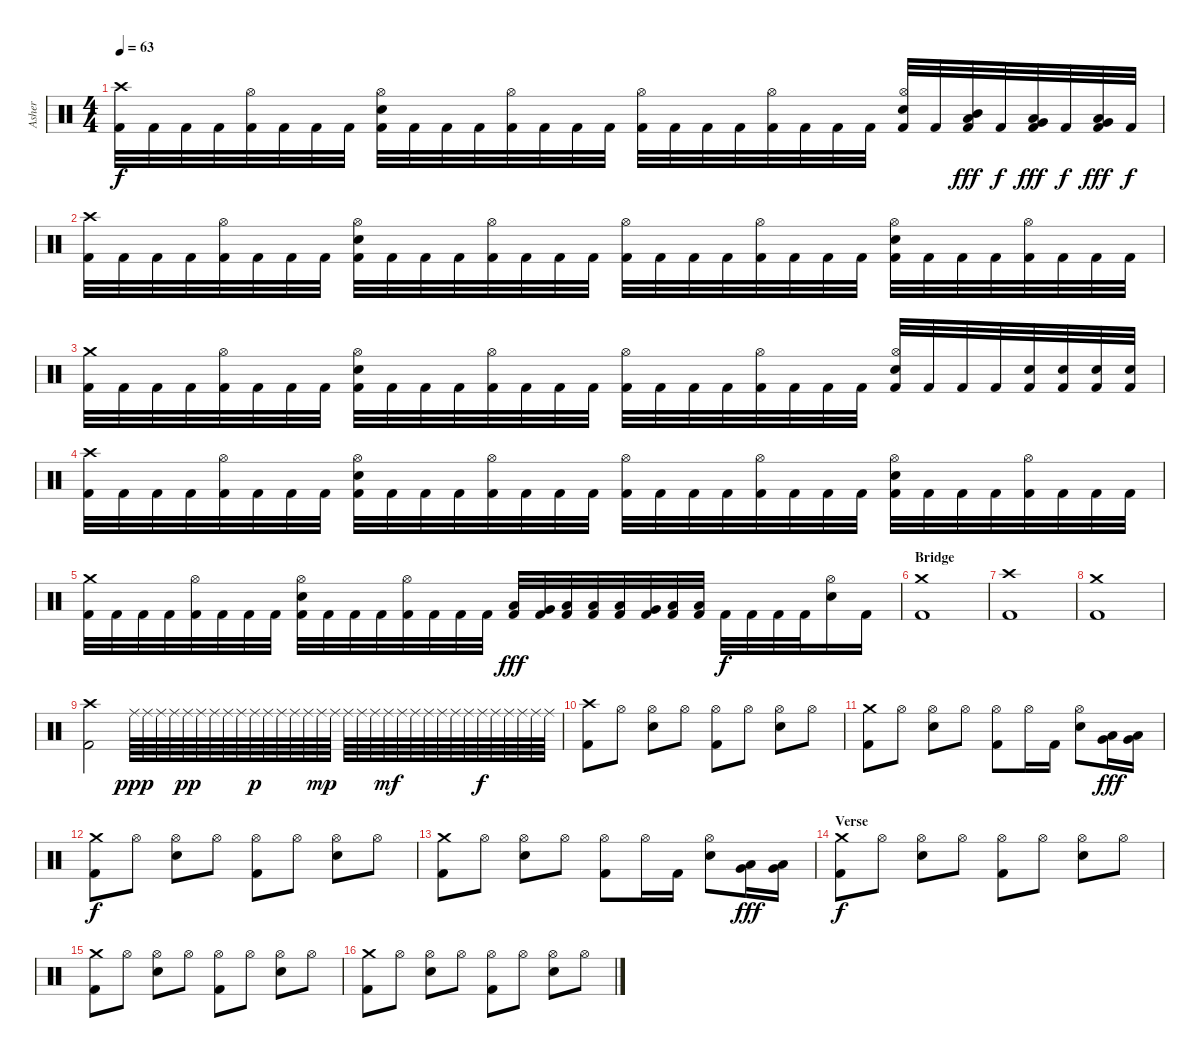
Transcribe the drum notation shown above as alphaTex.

\track ("Asher" "Asher") {instrument percussion}
\staff {score}
\articulation defaults
\ts (4 4)
\tempo 63
\clef neutral
\ks c
("Crash high (hit)" "Kick (hit) 2").32{dy f} "Kick (hit) 2".32 "Kick (hit) 2".32 "Kick (hit) 2".32 ("Hi-Hat (open)" "Kick (hit) 2").32 "Kick (hit) 2".32 "Kick (hit) 2".32 "Kick (hit) 2".32 ("Hi-Hat (open)" "Electric Snare (hit)" "Kick (hit) 2").32 "Kick (hit) 2".32 "Kick (hit) 2".32 "Kick (hit) 2".32 ("Hi-Hat (open)" "Kick (hit) 2").32 "Kick (hit) 2".32 "Kick (hit) 2".32 "Kick (hit) 2".32 ("Hi-Hat (open)" "Kick (hit) 2").32 "Kick (hit) 2".32 "Kick (hit) 2".32 "Kick (hit) 2".32 ("Hi-Hat (open)" "Kick (hit) 2").32 "Kick (hit) 2".32 "Kick (hit) 2".32 "Kick (hit) 2".32 ("Hi-Hat (open)" "Electric Snare (hit)" "Kick (hit) 2").32 "Kick (hit) 2".32 ("Mid Tom (hit)" "Low Tom (hit)" "Kick (hit) 2").32{dy fff} "Kick (hit) 2".32{dy f} ("Low Tom (hit)" "Very Low Tom (hit)" "Kick (hit) 2").32{dy fff} "Kick (hit) 2".32{dy f} ("Very Low Tom (hit)" "Low Floor Tom (hit)" "Kick (hit) 2").32{dy fff} "Kick (hit) 2".32{dy f} |
("Crash high (hit)" "Kick (hit) 2").32 "Kick (hit) 2".32 "Kick (hit) 2".32 "Kick (hit) 2".32 ("Hi-Hat (open)" "Kick (hit) 2").32 "Kick (hit) 2".32 "Kick (hit) 2".32 "Kick (hit) 2".32 ("Hi-Hat (open)" "Electric Snare (hit)" "Kick (hit) 2").32 "Kick (hit) 2".32 "Kick (hit) 2".32 "Kick (hit) 2".32 ("Hi-Hat (open)" "Kick (hit) 2").32 "Kick (hit) 2".32 "Kick (hit) 2".32 "Kick (hit) 2".32 ("Hi-Hat (open)" "Kick (hit) 2").32 "Kick (hit) 2".32 "Kick (hit) 2".32 "Kick (hit) 2".32 ("Hi-Hat (open)" "Kick (hit) 2").32 "Kick (hit) 2".32 "Kick (hit) 2".32 "Kick (hit) 2".32 ("Hi-Hat (open)" "Electric Snare (hit)" "Kick (hit) 2").32 "Kick (hit) 2".32 "Kick (hit) 2".32 "Kick (hit) 2".32 ("Hi-Hat (open)" "Kick (hit) 2").32 "Kick (hit) 2".32 "Kick (hit) 2".32 "Kick (hit) 2".32 |
("Crash medium (hit)" "Kick (hit) 2").32 "Kick (hit) 2".32 "Kick (hit) 2".32 "Kick (hit) 2".32 ("Hi-Hat (open)" "Kick (hit) 2").32 "Kick (hit) 2".32 "Kick (hit) 2".32 "Kick (hit) 2".32 ("Hi-Hat (open)" "Electric Snare (hit)" "Kick (hit) 2").32 "Kick (hit) 2".32 "Kick (hit) 2".32 "Kick (hit) 2".32 ("Hi-Hat (open)" "Kick (hit) 2").32 "Kick (hit) 2".32 "Kick (hit) 2".32 "Kick (hit) 2".32 ("Hi-Hat (open)" "Kick (hit) 2").32 "Kick (hit) 2".32 "Kick (hit) 2".32 "Kick (hit) 2".32 ("Hi-Hat (open)" "Kick (hit) 2").32 "Kick (hit) 2".32 "Kick (hit) 2".32 "Kick (hit) 2".32 ("Hi-Hat (open)" "Electric Snare (hit)" "Kick (hit) 2").32 "Kick (hit) 2".32 "Kick (hit) 2".32 "Kick (hit) 2".32 ("Electric Snare (hit)" "Kick (hit) 2").32 ("Electric Snare (hit)" "Kick (hit) 2").32 ("Electric Snare (hit)" "Kick (hit) 2").32 ("Electric Snare (hit)" "Kick (hit) 2").32 |
("Crash high (hit)" "Kick (hit) 2").32 "Kick (hit) 2".32 "Kick (hit) 2".32 "Kick (hit) 2".32 ("Hi-Hat (open)" "Kick (hit) 2").32 "Kick (hit) 2".32 "Kick (hit) 2".32 "Kick (hit) 2".32 ("Hi-Hat (open)" "Electric Snare (hit)" "Kick (hit) 2").32 "Kick (hit) 2".32 "Kick (hit) 2".32 "Kick (hit) 2".32 ("Hi-Hat (open)" "Kick (hit) 2").32 "Kick (hit) 2".32 "Kick (hit) 2".32 "Kick (hit) 2".32 ("Hi-Hat (open)" "Kick (hit) 2").32 "Kick (hit) 2".32 "Kick (hit) 2".32 "Kick (hit) 2".32 ("Hi-Hat (open)" "Kick (hit) 2").32 "Kick (hit) 2".32 "Kick (hit) 2".32 "Kick (hit) 2".32 ("Hi-Hat (open)" "Electric Snare (hit)" "Kick (hit) 2").32 "Kick (hit) 2".32 "Kick (hit) 2".32 "Kick (hit) 2".32 ("Hi-Hat (open)" "Kick (hit) 2").32 "Kick (hit) 2".32 "Kick (hit) 2".32 "Kick (hit) 2".32 |
("Crash medium (hit)" "Kick (hit) 2").32 "Kick (hit) 2".32 "Kick (hit) 2".32 "Kick (hit) 2".32 ("Hi-Hat (open)" "Kick (hit) 2").32 "Kick (hit) 2".32 "Kick (hit) 2".32 "Kick (hit) 2".32 ("Hi-Hat (open)" "Electric Snare (hit)" "Kick (hit) 2").32 "Kick (hit) 2".32 "Kick (hit) 2".32 "Kick (hit) 2".32 ("Hi-Hat (open)" "Kick (hit) 2").32 "Kick (hit) 2".32 "Kick (hit) 2".32 "Kick (hit) 2".32 ("Low Tom (hit)" "Kick (hit) 2").32{dy fff} ("Very Low Tom (hit)" "Kick (hit) 2").32 ("Low Floor Tom (hit)" "Kick (hit) 2").32 ("Low Floor Tom (hit)" "Kick (hit) 2").32 ("Low Tom (hit)" "Kick (hit) 2").32 ("Very Low Tom (hit)" "Kick (hit) 2").32 ("Low Floor Tom (hit)" "Kick (hit) 2").32 ("Low Floor Tom (hit)" "Kick (hit) 2").32 "Kick (hit) 2".32{dy f} "Kick (hit) 2".32 "Kick (hit) 2".32 "Kick (hit) 2".32 ("Hi-Hat (open)" "Electric Snare (hit)").16 "Kick (hit) 2".16 |
\section ("" "Bridge")
("Crash medium (hit)" "Kick (hit) 2").1 |
("Crash high (hit)" "Kick (hit) 2").1 |
("Crash medium (hit)" "Kick (hit) 2").1 |
("Crash high (hit)" "Kick (hit) 2").2 "Ride (middle)".64{dy ppp} "Ride (middle)".64 "Ride (middle)".64 "Ride (middle)".64 "Ride (middle)".64{dy pp} "Ride (middle)".64 "Ride (middle)".64 "Ride (middle)".64 "Ride (middle)".64 "Ride (middle)".64{dy p} "Ride (middle)".64 "Ride (middle)".64 "Ride (middle)".64 "Ride (middle)".64 "Ride (middle)".64{dy mp} "Ride (middle)".64 "Ride (middle)".64 "Ride (middle)".64 "Ride (middle)".64 "Ride (middle)".64{dy mf} "Ride (middle)".64 "Ride (middle)".64 "Ride (middle)".64 "Ride (middle)".64 "Ride (middle)".64 "Ride (middle)".64 "Ride (middle)".64{dy f} "Ride (middle)".64 "Ride (middle)".64 "Ride (middle)".64 "Ride (middle)".64 "Ride (middle)".64 |
("Crash high (hit)" "Kick (hit) 2").8 "Hi-Hat (open)".8 ("Hi-Hat (open)" "Electric Snare (hit)").8 "Hi-Hat (open)".8 ("Hi-Hat (open)" "Kick (hit) 2").8 "Hi-Hat (open)".8 ("Hi-Hat (open)" "Electric Snare (hit)").8 "Hi-Hat (open)".8 |
("Crash medium (hit)" "Kick (hit) 2").8 "Hi-Hat (open)".8 ("Hi-Hat (open)" "Electric Snare (hit)").8 "Hi-Hat (open)".8 ("Hi-Hat (open)" "Kick (hit) 2").8 "Hi-Hat (open)".16 "Kick (hit) 2".16 ("Hi-Hat (open)" "Electric Snare (hit)").8 ("Very Low Tom (hit)" "Low Floor Tom (hit)").16{dy fff} ("Very Low Tom (hit)" "Low Floor Tom (hit)").16 |
("Crash medium (hit)" "Kick (hit) 2").8{dy f} "Hi-Hat (open)".8 ("Hi-Hat (open)" "Electric Snare (hit)").8 "Hi-Hat (open)".8 ("Hi-Hat (open)" "Kick (hit) 2").8 "Hi-Hat (open)".8 ("Hi-Hat (open)" "Electric Snare (hit)").8 "Hi-Hat (open)".8 |
("Crash medium (hit)" "Kick (hit) 2").8 "Hi-Hat (open)".8 ("Hi-Hat (open)" "Electric Snare (hit)").8 "Hi-Hat (open)".8 ("Hi-Hat (open)" "Kick (hit) 2").8 "Hi-Hat (open)".16 "Kick (hit) 2".16 ("Hi-Hat (open)" "Electric Snare (hit)").8 ("Low Tom (hit)" "Very Low Tom (hit)").16{dy fff} ("Very Low Tom (hit)" "Low Floor Tom (hit)").16 |
\section ("" "Verse")
("Crash medium (hit)" "Kick (hit) 2").8{dy f} "Hi-Hat (open)".8 ("Hi-Hat (open)" "Electric Snare (hit)").8 "Hi-Hat (open)".8 ("Hi-Hat (open)" "Kick (hit) 2").8 "Hi-Hat (open)".8 ("Hi-Hat (open)" "Electric Snare (hit)").8 "Hi-Hat (open)".8 |
("Crash medium (hit)" "Kick (hit) 2").8 "Hi-Hat (open)".8 ("Hi-Hat (open)" "Electric Snare (hit)").8 "Hi-Hat (open)".8 ("Hi-Hat (open)" "Kick (hit) 2").8 "Hi-Hat (open)".8 ("Hi-Hat (open)" "Electric Snare (hit)").8 "Hi-Hat (open)".8 |
("Crash medium (hit)" "Kick (hit) 2").8 "Hi-Hat (open)".8 ("Hi-Hat (open)" "Electric Snare (hit)").8 "Hi-Hat (open)".8 ("Hi-Hat (open)" "Kick (hit) 2").8 "Hi-Hat (open)".8 ("Hi-Hat (open)" "Electric Snare (hit)").8 "Hi-Hat (open)".8
